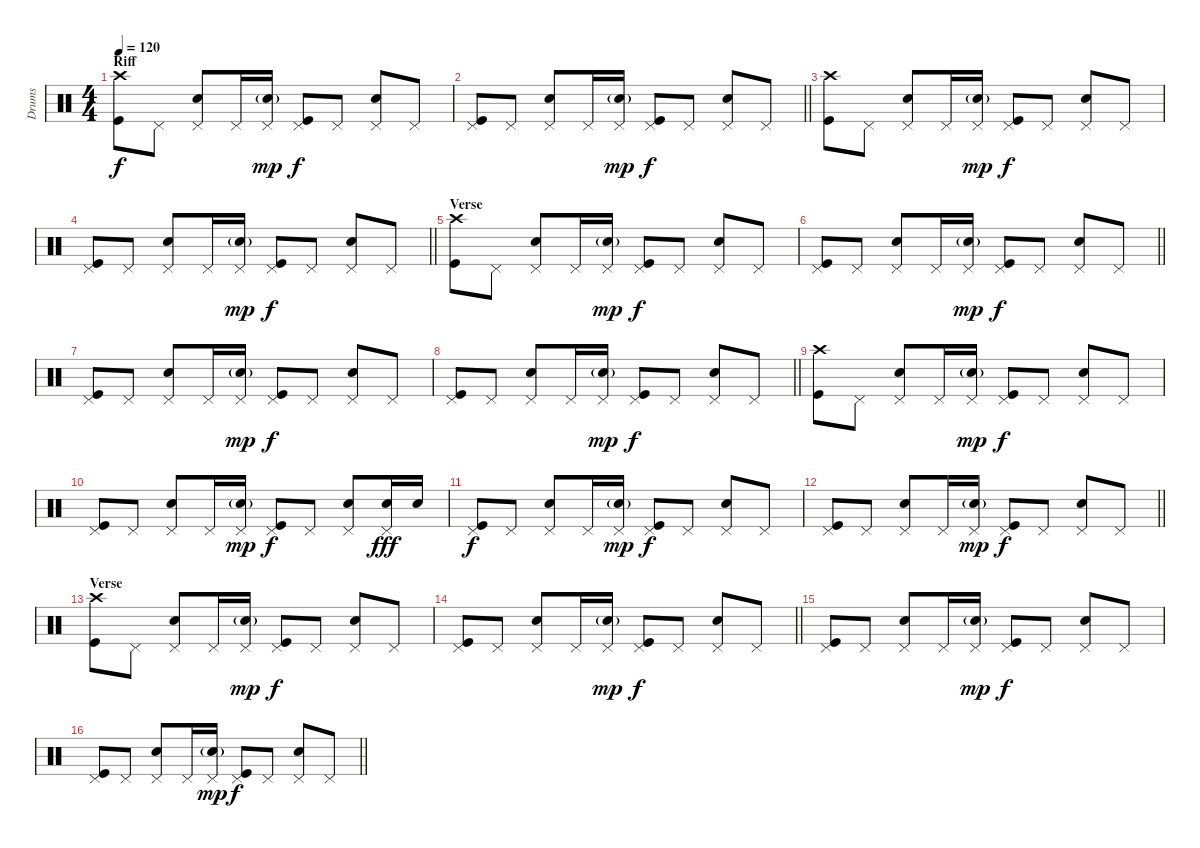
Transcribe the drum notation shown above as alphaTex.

\track ("Drums" "Drums") {instrument percussion}
\staff {score}
\articulation defaults
\ts (4 4)
\section ("" "Riff")
\tempo 120
\clef neutral
\ks c
("Crash high (hit)" "Kick (hit)").8{dy f} "Pedal Hi-Hat (hit)".8 ("Snare (hit) 2" "Pedal Hi-Hat (hit)").8 "Pedal Hi-Hat (hit)".16 ("Snare (hit) 2"{g} "Pedal Hi-Hat (hit)").16{dy mp} ("Kick (hit)" "Pedal Hi-Hat (hit)").8{dy f} "Pedal Hi-Hat (hit)".8 ("Snare (hit) 2" "Pedal Hi-Hat (hit)").8 "Pedal Hi-Hat (hit)".8 |
\barLineRight lightlight
("Kick (hit)" "Pedal Hi-Hat (hit)").8 "Pedal Hi-Hat (hit)".8 ("Snare (hit) 2" "Pedal Hi-Hat (hit)").8 "Pedal Hi-Hat (hit)".16 ("Snare (hit) 2"{g} "Pedal Hi-Hat (hit)").16{dy mp} ("Kick (hit)" "Pedal Hi-Hat (hit)").8{dy f} "Pedal Hi-Hat (hit)".8 ("Snare (hit) 2" "Pedal Hi-Hat (hit)").8 "Pedal Hi-Hat (hit)".8 |
("Crash high (hit)" "Kick (hit)").8 "Pedal Hi-Hat (hit)".8 ("Snare (hit) 2" "Pedal Hi-Hat (hit)").8 "Pedal Hi-Hat (hit)".16 ("Snare (hit) 2"{g} "Pedal Hi-Hat (hit)").16{dy mp} ("Kick (hit)" "Pedal Hi-Hat (hit)").8{dy f} "Pedal Hi-Hat (hit)".8 ("Snare (hit) 2" "Pedal Hi-Hat (hit)").8 "Pedal Hi-Hat (hit)".8 |
\barLineRight lightlight
("Kick (hit)" "Pedal Hi-Hat (hit)").8 "Pedal Hi-Hat (hit)".8 ("Snare (hit) 2" "Pedal Hi-Hat (hit)").8 "Pedal Hi-Hat (hit)".16 ("Snare (hit) 2"{g} "Pedal Hi-Hat (hit)").16{dy mp} ("Kick (hit)" "Pedal Hi-Hat (hit)").8{dy f} "Pedal Hi-Hat (hit)".8 ("Snare (hit) 2" "Pedal Hi-Hat (hit)").8 "Pedal Hi-Hat (hit)".8 |
\section ("" "Verse ")
("Crash high (hit)" "Kick (hit)").8 "Pedal Hi-Hat (hit)".8 ("Snare (hit) 2" "Pedal Hi-Hat (hit)").8 "Pedal Hi-Hat (hit)".16 ("Snare (hit) 2"{g} "Pedal Hi-Hat (hit)").16{dy mp} ("Kick (hit)" "Pedal Hi-Hat (hit)").8{dy f} "Pedal Hi-Hat (hit)".8 ("Snare (hit) 2" "Pedal Hi-Hat (hit)").8 "Pedal Hi-Hat (hit)".8 |
\barLineRight lightlight
("Kick (hit)" "Pedal Hi-Hat (hit)").8 "Pedal Hi-Hat (hit)".8 ("Snare (hit) 2" "Pedal Hi-Hat (hit)").8 "Pedal Hi-Hat (hit)".16 ("Snare (hit) 2"{g} "Pedal Hi-Hat (hit)").16{dy mp} ("Kick (hit)" "Pedal Hi-Hat (hit)").8{dy f} "Pedal Hi-Hat (hit)".8 ("Snare (hit) 2" "Pedal Hi-Hat (hit)").8 "Pedal Hi-Hat (hit)".8 |
("Kick (hit)" "Pedal Hi-Hat (hit)").8 "Pedal Hi-Hat (hit)".8 ("Snare (hit) 2" "Pedal Hi-Hat (hit)").8 "Pedal Hi-Hat (hit)".16 ("Snare (hit) 2"{g} "Pedal Hi-Hat (hit)").16{dy mp} ("Kick (hit)" "Pedal Hi-Hat (hit)").8{dy f} "Pedal Hi-Hat (hit)".8 ("Snare (hit) 2" "Pedal Hi-Hat (hit)").8 "Pedal Hi-Hat (hit)".8 |
\barLineRight lightlight
("Kick (hit)" "Pedal Hi-Hat (hit)").8 "Pedal Hi-Hat (hit)".8 ("Snare (hit) 2" "Pedal Hi-Hat (hit)").8 "Pedal Hi-Hat (hit)".16 ("Snare (hit) 2"{g} "Pedal Hi-Hat (hit)").16{dy mp} ("Kick (hit)" "Pedal Hi-Hat (hit)").8{dy f} "Pedal Hi-Hat (hit)".8 ("Snare (hit) 2" "Pedal Hi-Hat (hit)").8 "Pedal Hi-Hat (hit)".8 |
("Crash high (hit)" "Kick (hit)").8 "Pedal Hi-Hat (hit)".8 ("Snare (hit) 2" "Pedal Hi-Hat (hit)").8 "Pedal Hi-Hat (hit)".16 ("Snare (hit) 2"{g} "Pedal Hi-Hat (hit)").16{dy mp} ("Kick (hit)" "Pedal Hi-Hat (hit)").8{dy f} "Pedal Hi-Hat (hit)".8 ("Snare (hit) 2" "Pedal Hi-Hat (hit)").8 "Pedal Hi-Hat (hit)".8 |
("Kick (hit)" "Pedal Hi-Hat (hit)").8 "Pedal Hi-Hat (hit)".8 ("Snare (hit) 2" "Pedal Hi-Hat (hit)").8 "Pedal Hi-Hat (hit)".16 ("Snare (hit) 2"{g} "Pedal Hi-Hat (hit)").16{dy mp} ("Kick (hit)" "Pedal Hi-Hat (hit)").8{dy f} "Pedal Hi-Hat (hit)".8 ("Snare (hit) 2" "Pedal Hi-Hat (hit)").8 ("Snare (hit) 2" "Pedal Hi-Hat (hit)").16{dy fff} "Snare (hit) 2".16 |
("Kick (hit)" "Pedal Hi-Hat (hit)").8{dy f} "Pedal Hi-Hat (hit)".8 ("Snare (hit) 2" "Pedal Hi-Hat (hit)").8 "Pedal Hi-Hat (hit)".16 ("Snare (hit) 2"{g} "Pedal Hi-Hat (hit)").16{dy mp} ("Kick (hit)" "Pedal Hi-Hat (hit)").8{dy f} "Pedal Hi-Hat (hit)".8 ("Snare (hit) 2" "Pedal Hi-Hat (hit)").8 "Pedal Hi-Hat (hit)".8 |
\barLineRight lightlight
("Kick (hit)" "Pedal Hi-Hat (hit)").8 "Pedal Hi-Hat (hit)".8 ("Snare (hit) 2" "Pedal Hi-Hat (hit)").8 "Pedal Hi-Hat (hit)".16 ("Snare (hit) 2"{g} "Pedal Hi-Hat (hit)").16{dy mp} ("Kick (hit)" "Pedal Hi-Hat (hit)").8{dy f} "Pedal Hi-Hat (hit)".8 ("Snare (hit) 2" "Pedal Hi-Hat (hit)").8 "Pedal Hi-Hat (hit)".8 |
\section ("" "Verse")
("Crash high (hit)" "Kick (hit)").8 "Pedal Hi-Hat (hit)".8 ("Snare (hit) 2" "Pedal Hi-Hat (hit)").8 "Pedal Hi-Hat (hit)".16 ("Snare (hit) 2"{g} "Pedal Hi-Hat (hit)").16{dy mp} ("Kick (hit)" "Pedal Hi-Hat (hit)").8{dy f} "Pedal Hi-Hat (hit)".8 ("Snare (hit) 2" "Pedal Hi-Hat (hit)").8 "Pedal Hi-Hat (hit)".8 |
\barLineRight lightlight
("Kick (hit)" "Pedal Hi-Hat (hit)").8 "Pedal Hi-Hat (hit)".8 ("Snare (hit) 2" "Pedal Hi-Hat (hit)").8 "Pedal Hi-Hat (hit)".16 ("Snare (hit) 2"{g} "Pedal Hi-Hat (hit)").16{dy mp} ("Kick (hit)" "Pedal Hi-Hat (hit)").8{dy f} "Pedal Hi-Hat (hit)".8 ("Snare (hit) 2" "Pedal Hi-Hat (hit)").8 "Pedal Hi-Hat (hit)".8 |
("Kick (hit)" "Pedal Hi-Hat (hit)").8 "Pedal Hi-Hat (hit)".8 ("Snare (hit) 2" "Pedal Hi-Hat (hit)").8 "Pedal Hi-Hat (hit)".16 ("Snare (hit) 2"{g} "Pedal Hi-Hat (hit)").16{dy mp} ("Kick (hit)" "Pedal Hi-Hat (hit)").8{dy f} "Pedal Hi-Hat (hit)".8 ("Snare (hit) 2" "Pedal Hi-Hat (hit)").8 "Pedal Hi-Hat (hit)".8 |
\barLineRight lightlight
("Kick (hit)" "Pedal Hi-Hat (hit)").8 "Pedal Hi-Hat (hit)".8 ("Snare (hit) 2" "Pedal Hi-Hat (hit)").8 "Pedal Hi-Hat (hit)".16 ("Snare (hit) 2"{g} "Pedal Hi-Hat (hit)").16{dy mp} ("Kick (hit)" "Pedal Hi-Hat (hit)").8{dy f} "Pedal Hi-Hat (hit)".8 ("Snare (hit) 2" "Pedal Hi-Hat (hit)").8 "Pedal Hi-Hat (hit)".8
